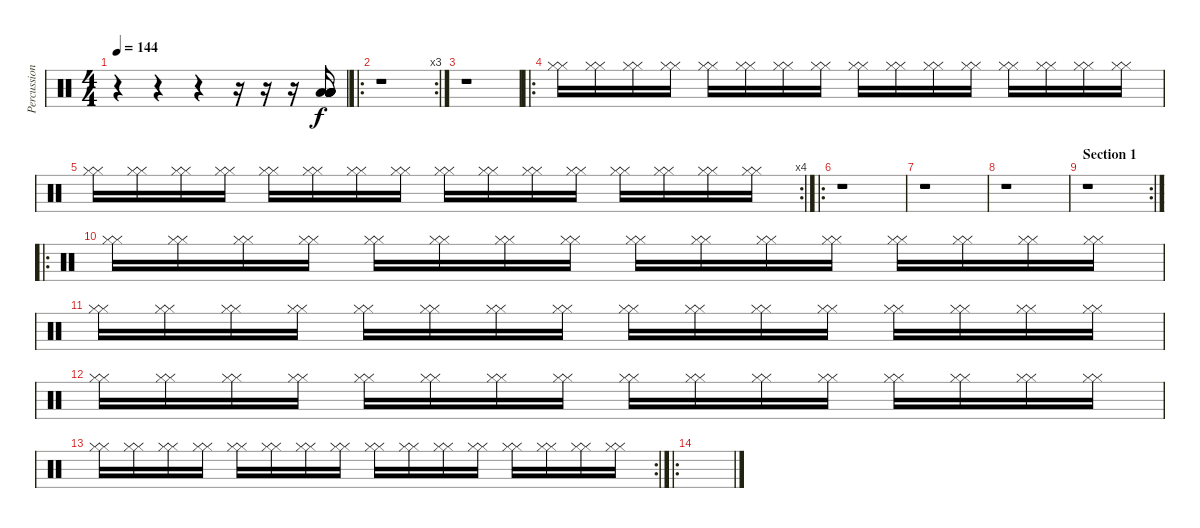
\track ("Percussion 3" "Percussion") {instrument percussion}
\staff {score}
\articulation defaults
\ts (4 4)
\tempo 144
\clef neutral
\ks c
r.4{dy f} r.4 r.4 r.16 r.16 r.16 ("Low Floor Tom (hit)" "Low Floor Tom (hit)" "Low Floor Tom (hit)" "Low Floor Tom (hit)" "Low Floor Tom (hit)" "Low Floor Tom (hit)").16 |
\ro
\rc 3
r.1 |
r.1 |
\ro
("Hi-Hat (closed)" "Hi-Hat (closed)").16 ("Hi-Hat (closed)" "Hi-Hat (closed)").16 ("Hi-Hat (closed)" "Hi-Hat (closed)").16 ("Hi-Hat (closed)" "Hi-Hat (closed)").16 ("Hi-Hat (closed)" "Hi-Hat (closed)").16 ("Hi-Hat (closed)" "Hi-Hat (closed)").16 ("Hi-Hat (closed)" "Hi-Hat (closed)").16 ("Hi-Hat (closed)" "Hi-Hat (closed)").16 ("Hi-Hat (closed)" "Hi-Hat (closed)").16 ("Hi-Hat (closed)" "Hi-Hat (closed)").16 ("Hi-Hat (closed)" "Hi-Hat (closed)").16 ("Hi-Hat (closed)" "Hi-Hat (closed)").16 ("Hi-Hat (closed)" "Hi-Hat (closed)").16 ("Hi-Hat (closed)" "Hi-Hat (closed)").16 ("Hi-Hat (closed)" "Hi-Hat (closed)").16 ("Hi-Hat (closed)" "Hi-Hat (closed)").16 |
\rc 4
("Hi-Hat (closed)" "Hi-Hat (closed)").16 ("Hi-Hat (closed)" "Hi-Hat (closed)").16 ("Hi-Hat (closed)" "Hi-Hat (closed)").16 ("Hi-Hat (closed)" "Hi-Hat (closed)").16 ("Hi-Hat (closed)" "Hi-Hat (closed)").16 ("Hi-Hat (closed)" "Hi-Hat (closed)").16 ("Hi-Hat (closed)" "Hi-Hat (closed)").16 ("Hi-Hat (closed)" "Hi-Hat (closed)").16 ("Hi-Hat (closed)" "Hi-Hat (closed)").16 ("Hi-Hat (closed)" "Hi-Hat (closed)").16 ("Hi-Hat (closed)" "Hi-Hat (closed)").16 ("Hi-Hat (closed)" "Hi-Hat (closed)").16 ("Hi-Hat (closed)" "Hi-Hat (closed)").16 ("Hi-Hat (closed)" "Hi-Hat (closed)").16 ("Hi-Hat (closed)" "Hi-Hat (closed)").16 ("Hi-Hat (closed)" "Hi-Hat (closed)").16 |
\ro
r.1 |
r.1 |
r.1 |
\rc 2
\section ("" "Section 1")
r.1 |
\ro
("Hi-Hat (closed)" "Hi-Hat (closed)").16 ("Hi-Hat (closed)" "Hi-Hat (closed)").16 ("Hi-Hat (closed)" "Hi-Hat (closed)").16 ("Hi-Hat (closed)" "Hi-Hat (closed)").16 ("Hi-Hat (closed)" "Hi-Hat (closed)").16 ("Hi-Hat (closed)" "Hi-Hat (closed)").16 ("Hi-Hat (closed)" "Hi-Hat (closed)").16 ("Hi-Hat (closed)" "Hi-Hat (closed)").16 ("Hi-Hat (closed)" "Hi-Hat (closed)").16 ("Hi-Hat (closed)" "Hi-Hat (closed)").16 ("Hi-Hat (closed)" "Hi-Hat (closed)").16 ("Hi-Hat (closed)" "Hi-Hat (closed)").16 ("Hi-Hat (closed)" "Hi-Hat (closed)").16 ("Hi-Hat (closed)" "Hi-Hat (closed)").16 ("Hi-Hat (closed)" "Hi-Hat (closed)").16 ("Hi-Hat (closed)" "Hi-Hat (closed)").16 |
("Hi-Hat (closed)" "Hi-Hat (closed)").16 ("Hi-Hat (closed)" "Hi-Hat (closed)").16 ("Hi-Hat (closed)" "Hi-Hat (closed)").16 ("Hi-Hat (closed)" "Hi-Hat (closed)").16 ("Hi-Hat (closed)" "Hi-Hat (closed)").16 ("Hi-Hat (closed)" "Hi-Hat (closed)").16 ("Hi-Hat (closed)" "Hi-Hat (closed)").16 ("Hi-Hat (closed)" "Hi-Hat (closed)").16 ("Hi-Hat (closed)" "Hi-Hat (closed)").16 ("Hi-Hat (closed)" "Hi-Hat (closed)").16 ("Hi-Hat (closed)" "Hi-Hat (closed)").16 ("Hi-Hat (closed)" "Hi-Hat (closed)").16 ("Hi-Hat (closed)" "Hi-Hat (closed)").16 ("Hi-Hat (closed)" "Hi-Hat (closed)").16 ("Hi-Hat (closed)" "Hi-Hat (closed)").16 ("Hi-Hat (closed)" "Hi-Hat (closed)").16 |
("Hi-Hat (closed)" "Hi-Hat (closed)").16 ("Hi-Hat (closed)" "Hi-Hat (closed)").16 ("Hi-Hat (closed)" "Hi-Hat (closed)").16 ("Hi-Hat (closed)" "Hi-Hat (closed)").16 ("Hi-Hat (closed)" "Hi-Hat (closed)").16 ("Hi-Hat (closed)" "Hi-Hat (closed)").16 ("Hi-Hat (closed)" "Hi-Hat (closed)").16 ("Hi-Hat (closed)" "Hi-Hat (closed)").16 ("Hi-Hat (closed)" "Hi-Hat (closed)").16 ("Hi-Hat (closed)" "Hi-Hat (closed)").16 ("Hi-Hat (closed)" "Hi-Hat (closed)").16 ("Hi-Hat (closed)" "Hi-Hat (closed)").16 ("Hi-Hat (closed)" "Hi-Hat (closed)").16 ("Hi-Hat (closed)" "Hi-Hat (closed)").16 ("Hi-Hat (closed)" "Hi-Hat (closed)").16 ("Hi-Hat (closed)" "Hi-Hat (closed)").16 |
\rc 2
("Hi-Hat (closed)" "Hi-Hat (closed)").16 ("Hi-Hat (closed)" "Hi-Hat (closed)").16 ("Hi-Hat (closed)" "Hi-Hat (closed)").16 ("Hi-Hat (closed)" "Hi-Hat (closed)").16 ("Hi-Hat (closed)" "Hi-Hat (closed)").16 ("Hi-Hat (closed)" "Hi-Hat (closed)").16 ("Hi-Hat (closed)" "Hi-Hat (closed)").16 ("Hi-Hat (closed)" "Hi-Hat (closed)").16 ("Hi-Hat (closed)" "Hi-Hat (closed)").16 ("Hi-Hat (closed)" "Hi-Hat (closed)").16 ("Hi-Hat (closed)" "Hi-Hat (closed)").16 ("Hi-Hat (closed)" "Hi-Hat (closed)").16 ("Hi-Hat (closed)" "Hi-Hat (closed)").16 ("Hi-Hat (closed)" "Hi-Hat (closed)").16 ("Hi-Hat (closed)" "Hi-Hat (closed)").16 ("Hi-Hat (closed)" "Hi-Hat (closed)").16 |
\ro
